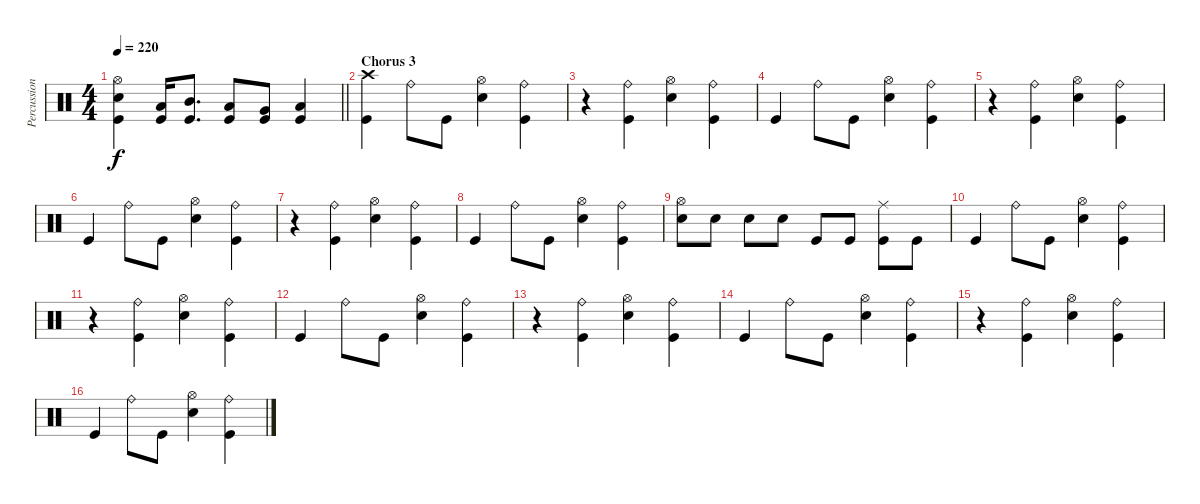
\track ("Percussion" "Percussion") {instrument percussion}
\staff {score}
\articulation defaults
\ts (4 4)
\tempo 220
\clef neutral
\barLineRight lightlight
\ks c
("Kick (hit)" "Snare (hit) 2" "Hi-Hat (open)").4{dy f} ("Kick (hit)" "Low Tom (hit)").16 ("Kick (hit)" "Mid Tom (hit)").8{d} ("Kick (hit)" "Low Tom (hit)").8 ("Kick (hit)" "Very Low Tom (hit)").8 ("Kick (hit)" "Low Floor Tom (hit)").4 |
\section ("" "Chorus 3")
("Kick (hit)" "Crash high (hit)").4 "Ride (bell)".8 "Kick (hit)".8 ("Snare (hit) 2" "Hi-Hat (open)").4 ("Kick (hit)" "Ride (bell)").4 |
r.4 ("Kick (hit)" "Ride (bell)").4 ("Snare (hit) 2" "Hi-Hat (open)").4 ("Kick (hit)" "Ride (bell)").4 |
"Kick (hit)".4 "Ride (bell)".8 "Kick (hit)".8 ("Snare (hit) 2" "Hi-Hat (open)").4 ("Kick (hit)" "Ride (bell)").4 |
r.4 ("Kick (hit)" "Ride (bell)").4 ("Snare (hit) 2" "Hi-Hat (open)").4 ("Kick (hit)" "Ride (bell)").4 |
"Kick (hit)".4 "Ride (bell)".8 "Kick (hit)".8 ("Snare (hit) 2" "Hi-Hat (open)").4 ("Kick (hit)" "Ride (bell)").4 |
r.4 ("Kick (hit)" "Ride (bell)").4 ("Snare (hit) 2" "Hi-Hat (open)").4 ("Kick (hit)" "Ride (bell)").4 |
"Kick (hit)".4 "Ride (bell)".8 "Kick (hit)".8 ("Snare (hit) 2" "Hi-Hat (open)").4 ("Kick (hit)" "Ride (bell)").4 |
("Snare (hit) 2" "Hi-Hat (open)").8 "Snare (hit) 2".8 "Snare (hit) 2".8 "Snare (hit) 2".8 "Kick (hit)".8 "Kick (hit)".8 ("Kick (hit)" "Ride (middle)").8 "Kick (hit)".8 |
"Kick (hit)".4 "Ride (bell)".8 "Kick (hit)".8 ("Snare (hit) 2" "Hi-Hat (open)").4 ("Kick (hit)" "Ride (bell)").4 |
r.4 ("Kick (hit)" "Ride (bell)").4 ("Snare (hit) 2" "Hi-Hat (open)").4 ("Kick (hit)" "Ride (bell)").4 |
"Kick (hit)".4 "Ride (bell)".8 "Kick (hit)".8 ("Snare (hit) 2" "Hi-Hat (open)").4 ("Kick (hit)" "Ride (bell)").4 |
r.4 ("Kick (hit)" "Ride (bell)").4 ("Snare (hit) 2" "Hi-Hat (open)").4 ("Kick (hit)" "Ride (bell)").4 |
"Kick (hit)".4 "Ride (bell)".8 "Kick (hit)".8 ("Snare (hit) 2" "Hi-Hat (open)").4 ("Kick (hit)" "Ride (bell)").4 |
r.4 ("Kick (hit)" "Ride (bell)").4 ("Snare (hit) 2" "Hi-Hat (open)").4 ("Kick (hit)" "Ride (bell)").4 |
"Kick (hit)".4 "Ride (bell)".8 "Kick (hit)".8 ("Snare (hit) 2" "Hi-Hat (open)").4 ("Kick (hit)" "Ride (bell)").4
